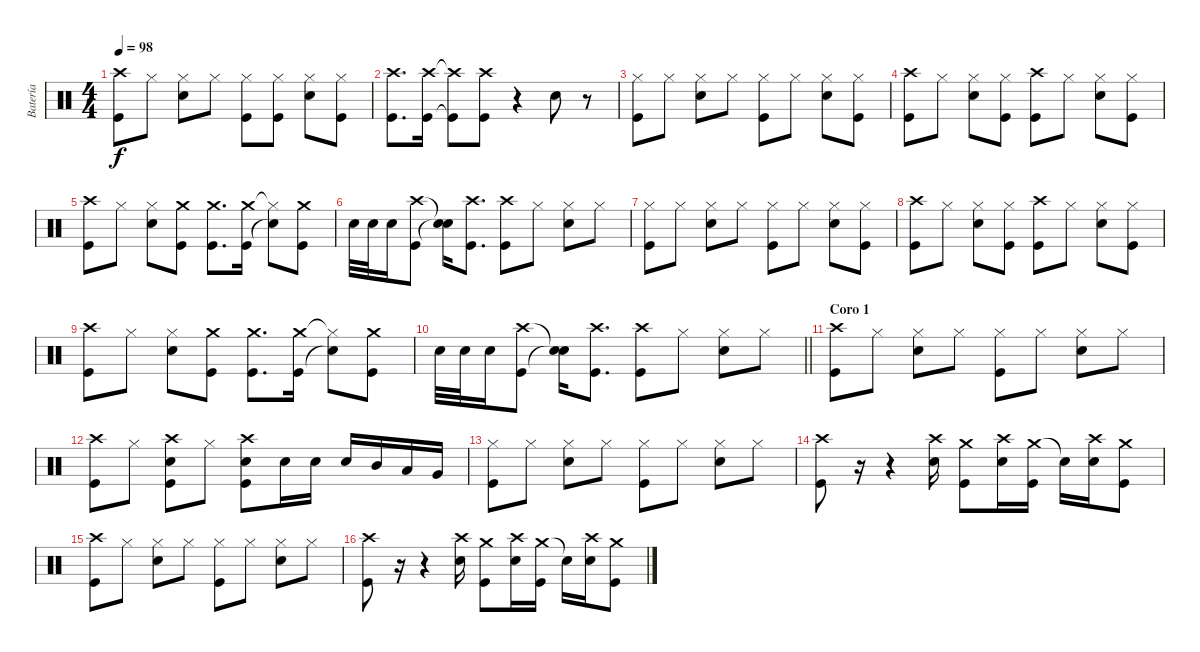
\track ("Batería" "Batería") {instrument percussion}
\staff {score}
\articulation defaults
\ts (4 4)
\tempo 98
\clef neutral
\ks c
("Crash high (hit)" "Kick (hit)").8{dy f} "Hi-Hat (closed)".8 ("Hi-Hat (closed)" "Electric Snare (hit)").8 "Hi-Hat (closed)".8 ("Hi-Hat (closed)" "Kick (hit)").8 ("Hi-Hat (closed)" "Kick (hit)").8 ("Hi-Hat (closed)" "Electric Snare (hit)").8 ("Hi-Hat (closed)" "Kick (hit)").8 |
("Crash high (hit)" "Kick (hit)").8{d} ("Crash high (hit)" "Kick (hit)").16 ("Crash high (hit)"{t} "Kick (hit)"{t}).8 ("Crash high (hit)" "Kick (hit)").8 r.4 "Electric Snare (hit)".8 r.8 |
("Hi-Hat (closed)" "Kick (hit)").8 "Hi-Hat (closed)".8 ("Hi-Hat (closed)" "Electric Snare (hit)").8 "Hi-Hat (closed)".8 ("Hi-Hat (closed)" "Kick (hit)").8 "Hi-Hat (closed)".8 ("Hi-Hat (closed)" "Electric Snare (hit)").8 ("Hi-Hat (closed)" "Kick (hit)").8 |
("Crash high (hit)" "Kick (hit)").8 "Hi-Hat (closed)".8 ("Hi-Hat (closed)" "Electric Snare (hit)").8 ("Hi-Hat (closed)" "Kick (hit)").8 ("Crash high (hit)" "Kick (hit)").8 "Hi-Hat (closed)".8 ("Hi-Hat (closed)" "Electric Snare (hit)").8 ("Hi-Hat (closed)" "Kick (hit)").8 |
("Crash high (hit)" "Kick (hit)").8 "Hi-Hat (closed)".8 ("Hi-Hat (closed)" "Electric Snare (hit)").8 ("Crash medium (hit)" "Kick (hit)").8 ("Crash medium (hit)" "Kick (hit)").8{d} ("Crash medium (hit)" "Kick (hit)").16 ("Hi-Hat (closed)"{t} "Electric Snare (hit)"{t}).8 ("Crash medium (hit)" "Kick (hit)").8 |
"Electric Snare (hit)".32 "Electric Snare (hit)".32 "Electric Snare (hit)".16 ("Crash high (hit)" "Kick (hit)").8 ("Snare (hit)"{t} "Snare (hit)"{t}).16 ("Crash high (hit)" "Kick (hit)").8{d} ("Crash high (hit)" "Kick (hit)").8 "Hi-Hat (closed)".8 ("Hi-Hat (closed)" "Electric Snare (hit)").8 "Hi-Hat (closed)".8 |
("Hi-Hat (closed)" "Kick (hit)").8 "Hi-Hat (closed)".8 ("Hi-Hat (closed)" "Electric Snare (hit)").8 "Hi-Hat (closed)".8 ("Hi-Hat (closed)" "Kick (hit)").8 "Hi-Hat (closed)".8 ("Hi-Hat (closed)" "Electric Snare (hit)").8 ("Hi-Hat (closed)" "Kick (hit)").8 |
("Crash high (hit)" "Kick (hit)").8 "Hi-Hat (closed)".8 ("Hi-Hat (closed)" "Electric Snare (hit)").8 ("Hi-Hat (closed)" "Kick (hit)").8 ("Crash high (hit)" "Kick (hit)").8 "Hi-Hat (closed)".8 ("Hi-Hat (closed)" "Electric Snare (hit)").8 ("Hi-Hat (closed)" "Kick (hit)").8 |
("Crash high (hit)" "Kick (hit)").8 "Hi-Hat (closed)".8 ("Hi-Hat (closed)" "Electric Snare (hit)").8 ("Crash medium (hit)" "Kick (hit)").8 ("Crash medium (hit)" "Kick (hit)").8{d} ("Crash medium (hit)" "Kick (hit)").16 ("Hi-Hat (closed)"{t} "Electric Snare (hit)"{t}).8 ("Crash medium (hit)" "Kick (hit)").8 |
\barLineRight lightlight "Electric Snare (hit)".32 "Electric Snare (hit)".32 "Electric Snare (hit)".16
("Crash high (hit)" "Kick (hit)").8 ("Snare (hit)"{t} "Snare (hit)"{t}).16 ("Crash high (hit)" "Kick (hit)").8{d} ("Crash high (hit)" "Kick (hit)").8 "Hi-Hat (closed)".8 ("Hi-Hat (closed)" "Electric Snare (hit)").8 "Hi-Hat (closed)".8 |
\section ("" "Coro 1")
("Crash high (hit)" "Kick (hit)").8 "Hi-Hat (closed)".8 ("Hi-Hat (closed)" "Electric Snare (hit)").8 "Hi-Hat (closed)".8 ("Hi-Hat (closed)" "Kick (hit)").8 "Hi-Hat (closed)".8 ("Hi-Hat (closed)" "Electric Snare (hit)").8 "Hi-Hat (closed)".8 |
("Crash high (hit)" "Kick (hit)").8 "Hi-Hat (closed)".8 ("Crash high (hit)" "Electric Snare (hit)" "Kick (hit)").8 "Hi-Hat (closed)".8 ("Crash high (hit)" "Electric Snare (hit)" "Kick (hit)").8 "Electric Snare (hit)".16 "Electric Snare (hit)".16 "Electric Snare (hit)".16 "Mid Tom (hit)".16 "Low Tom (hit)".16 "Very Low Tom (hit)".16 |
("Hi-Hat (closed)" "Kick (hit)").8 "Hi-Hat (closed)".8 ("Hi-Hat (closed)" "Electric Snare (hit)").8 "Hi-Hat (closed)".8 ("Hi-Hat (closed)" "Kick (hit)").8 "Hi-Hat (closed)".8 ("Hi-Hat (closed)" "Electric Snare (hit)").8 "Hi-Hat (closed)".8 |
("Crash high (hit)" "Kick (hit)").8 r.16 r.4 ("Crash high (hit)" "Electric Snare (hit)").16 ("Crash medium (hit)" "Kick (hit)").8 ("Crash high (hit)" "Electric Snare (hit)").16 ("Crash medium (hit)" "Kick (hit)").16 "Snare (hit)"{t}.16 ("Crash high (hit)" "Electric Snare (hit)").16 ("Crash medium (hit)" "Kick (hit)").8 |
("Crash high (hit)" "Kick (hit)").8 "Hi-Hat (closed)".8 ("Hi-Hat (closed)" "Electric Snare (hit)").8 "Hi-Hat (closed)".8 ("Hi-Hat (closed)" "Kick (hit)").8 "Hi-Hat (closed)".8 ("Hi-Hat (closed)" "Electric Snare (hit)").8 "Hi-Hat (closed)".8 |
("Crash high (hit)" "Kick (hit)").8 r.16 r.4 ("Crash high (hit)" "Electric Snare (hit)").16 ("Crash medium (hit)" "Kick (hit)").8 ("Crash high (hit)" "Electric Snare (hit)").16 ("Crash medium (hit)" "Kick (hit)").16 "Snare (hit)"{t}.16 ("Crash high (hit)" "Electric Snare (hit)").16 ("Crash medium (hit)" "Kick (hit)").8
